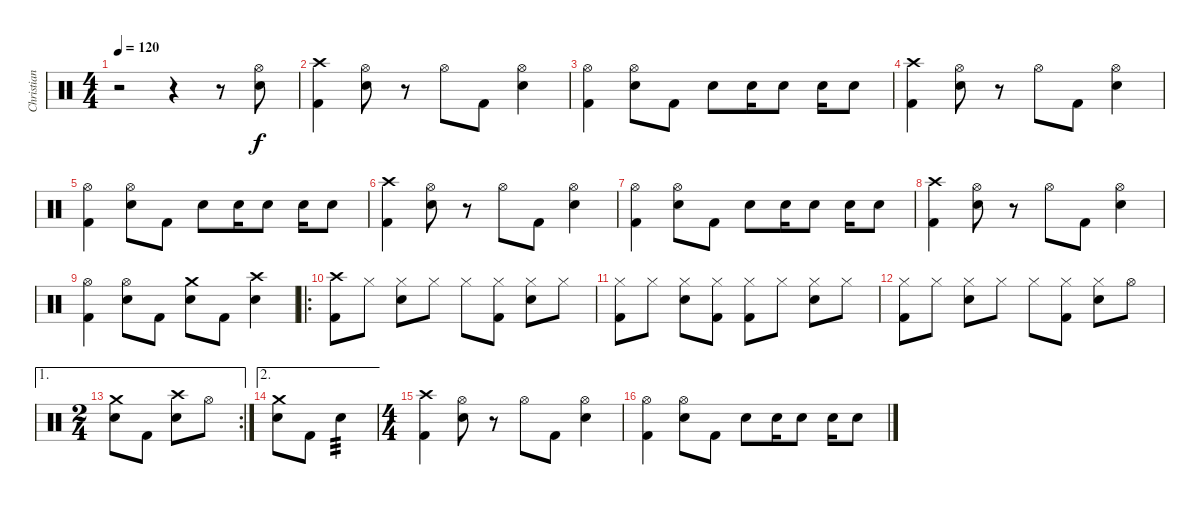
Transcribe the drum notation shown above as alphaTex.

\track ("Christian" "Christian") {instrument percussion}
\staff {score}
\articulation defaults
\ts (4 4)
\tempo 120
\clef neutral
\ks c
r.2{dy f} r.4 r.8 ("Hi-Hat (open)" "Electric Snare (hit)").8 |
("Crash high (hit)" "Kick (hit) 2").4 ("Hi-Hat (open)" "Electric Snare (hit)").8 r.8 "Hi-Hat (open)".8 "Kick (hit) 2".8 ("Hi-Hat (open)" "Electric Snare (hit)").4 |
("Hi-Hat (open)" "Kick (hit) 2").4 ("Hi-Hat (open)" "Electric Snare (hit)").8 "Kick (hit) 2".8 "Electric Snare (hit)".8 "Electric Snare (hit)".16 "Electric Snare (hit)".8 "Electric Snare (hit)".16 "Electric Snare (hit)".8 |
("Crash high (hit)" "Kick (hit) 2").4 ("Hi-Hat (open)" "Electric Snare (hit)").8 r.8 "Hi-Hat (open)".8 "Kick (hit) 2".8 ("Hi-Hat (open)" "Electric Snare (hit)").4 |
("Hi-Hat (open)" "Kick (hit) 2").4 ("Hi-Hat (open)" "Electric Snare (hit)").8 "Kick (hit) 2".8 "Electric Snare (hit)".8 "Electric Snare (hit)".16 "Electric Snare (hit)".8 "Electric Snare (hit)".16 "Electric Snare (hit)".8 |
("Crash high (hit)" "Kick (hit) 2").4 ("Hi-Hat (open)" "Electric Snare (hit)").8 r.8 "Hi-Hat (open)".8 "Kick (hit) 2".8 ("Hi-Hat (open)" "Electric Snare (hit)").4 |
("Hi-Hat (open)" "Kick (hit) 2").4 ("Hi-Hat (open)" "Electric Snare (hit)").8 "Kick (hit) 2".8 "Electric Snare (hit)".8 "Electric Snare (hit)".16 "Electric Snare (hit)".8 "Electric Snare (hit)".16 "Electric Snare (hit)".8 |
("Crash high (hit)" "Kick (hit) 2").4 ("Hi-Hat (open)" "Electric Snare (hit)").8 r.8 "Hi-Hat (open)".8 "Kick (hit) 2".8 ("Hi-Hat (open)" "Electric Snare (hit)").4 |
("Hi-Hat (open)" "Kick (hit) 2").4 ("Hi-Hat (open)" "Electric Snare (hit)").8 "Kick (hit) 2".8 ("Crash medium (hit)" "Electric Snare (hit)").8 "Kick (hit) 2".8 ("Crash high (hit)" "Electric Snare (hit)").4 |
\ro
("Crash high (hit)" "Kick (hit) 2").8 "Hi-Hat (closed)".8 ("Hi-Hat (closed)" "Electric Snare (hit)").8 "Hi-Hat (closed)".8 "Hi-Hat (closed)".8 ("Hi-Hat (closed)" "Kick (hit) 2").8 ("Hi-Hat (closed)" "Electric Snare (hit)").8 "Hi-Hat (closed)".8 |
("Hi-Hat (closed)" "Kick (hit) 2").8 "Hi-Hat (closed)".8 ("Hi-Hat (closed)" "Electric Snare (hit)").8 ("Hi-Hat (closed)" "Kick (hit) 2").8 ("Hi-Hat (closed)" "Kick (hit) 2").8 "Hi-Hat (closed)".8 ("Hi-Hat (closed)" "Electric Snare (hit)").8 "Hi-Hat (closed)".8 |
("Hi-Hat (closed)" "Kick (hit) 2").8 "Hi-Hat (closed)".8 ("Hi-Hat (closed)" "Electric Snare (hit)").8 "Hi-Hat (closed)".8 "Hi-Hat (closed)".8 ("Hi-Hat (closed)" "Kick (hit) 2").8 ("Hi-Hat (closed)" "Electric Snare (hit)").8 "Hi-Hat (open)".8 |
\ae 1
\rc 2
\ts (2 4)
("Crash medium (hit)" "Electric Snare (hit)").8 "Kick (hit) 2".8 ("Crash high (hit)" "Electric Snare (hit)").8 "Hi-Hat (open)".8 |
\ae 2
("Crash medium (hit)" "Electric Snare (hit)").8 "Kick (hit) 2".8 "Electric Snare (hit)".4{tp 3} |
\ts (4 4)
("Crash high (hit)" "Kick (hit) 2").4 ("Hi-Hat (open)" "Electric Snare (hit)").8 r.8 "Hi-Hat (open)".8 "Kick (hit) 2".8 ("Hi-Hat (open)" "Electric Snare (hit)").4 |
("Hi-Hat (open)" "Kick (hit) 2").4 ("Hi-Hat (open)" "Electric Snare (hit)").8 "Kick (hit) 2".8 "Electric Snare (hit)".8 "Electric Snare (hit)".16 "Electric Snare (hit)".8 "Electric Snare (hit)".16 "Electric Snare (hit)".8
